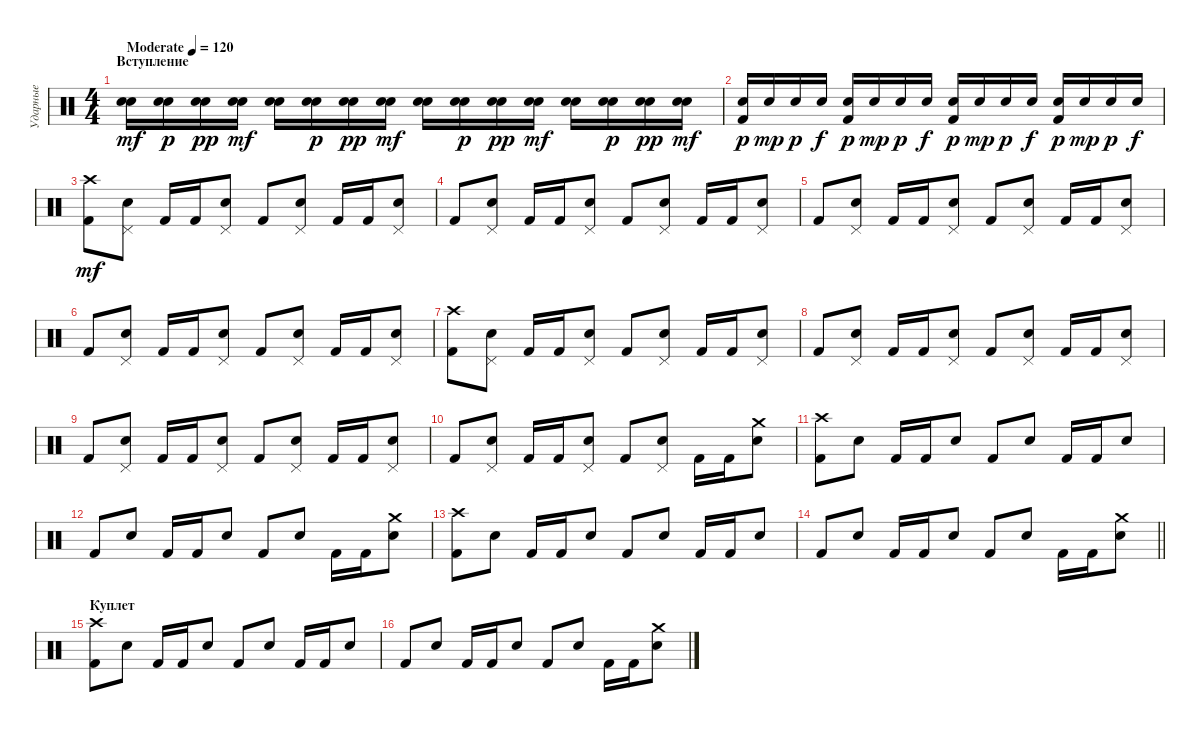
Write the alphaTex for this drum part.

\track ("Ударные" "Ударные") {instrument percussion}
\staff {score}
\articulation defaults
\ts (4 4)
\section ("" "Вступление")
\tempo (120 "Moderate")
\clef neutral
\ks c
("Electric Snare (hit)" "Electric Snare (hit)").16{dy mf} ("Electric Snare (hit)" "Electric Snare (hit)").16{dy p} ("Electric Snare (hit)" "Electric Snare (hit)").16{dy pp} ("Electric Snare (hit)" "Electric Snare (hit)").16{dy mf} ("Electric Snare (hit)" "Electric Snare (hit)").16 ("Electric Snare (hit)" "Electric Snare (hit)").16{dy p} ("Electric Snare (hit)" "Electric Snare (hit)").16{dy pp} ("Electric Snare (hit)" "Electric Snare (hit)").16{dy mf} ("Electric Snare (hit)" "Electric Snare (hit)").16 ("Electric Snare (hit)" "Electric Snare (hit)").16{dy p} ("Electric Snare (hit)" "Electric Snare (hit)").16{dy pp} ("Electric Snare (hit)" "Electric Snare (hit)").16{dy mf} ("Electric Snare (hit)" "Electric Snare (hit)").16 ("Electric Snare (hit)" "Electric Snare (hit)").16{dy p} ("Electric Snare (hit)" "Electric Snare (hit)").16{dy pp} ("Electric Snare (hit)" "Electric Snare (hit)").16{dy mf} |
("Electric Snare (hit)" "Kick (hit) 2").16{dy p} "Electric Snare (hit)".16{dy mp} "Electric Snare (hit)".16{dy p} "Electric Snare (hit)".16{dy f} ("Electric Snare (hit)" "Kick (hit) 2").16{dy p} "Electric Snare (hit)".16{dy mp} "Electric Snare (hit)".16{dy p} "Electric Snare (hit)".16{dy f} ("Electric Snare (hit)" "Kick (hit) 2").16{dy p} "Electric Snare (hit)".16{dy mp} "Electric Snare (hit)".16{dy p} "Electric Snare (hit)".16{dy f} ("Electric Snare (hit)" "Kick (hit) 2").16{dy p} "Electric Snare (hit)".16{dy mp} "Electric Snare (hit)".16{dy p} "Electric Snare (hit)".16{dy f} |
("Crash high (hit)" "Kick (hit) 2").8{dy mf} ("Pedal Hi-Hat (hit)" "Electric Snare (hit)").8 "Kick (hit) 2".16 "Kick (hit) 2".16 ("Pedal Hi-Hat (hit)" "Electric Snare (hit)").8 "Kick (hit) 2".8 ("Pedal Hi-Hat (hit)" "Electric Snare (hit)").8 "Kick (hit) 2".16 "Kick (hit) 2".16 ("Pedal Hi-Hat (hit)" "Electric Snare (hit)").8 |
"Kick (hit) 2".8 ("Pedal Hi-Hat (hit)" "Electric Snare (hit)").8 "Kick (hit) 2".16 "Kick (hit) 2".16 ("Pedal Hi-Hat (hit)" "Electric Snare (hit)").8 "Kick (hit) 2".8 ("Pedal Hi-Hat (hit)" "Electric Snare (hit)").8 "Kick (hit) 2".16 "Kick (hit) 2".16 ("Pedal Hi-Hat (hit)" "Electric Snare (hit)").8 |
"Kick (hit) 2".8 ("Pedal Hi-Hat (hit)" "Electric Snare (hit)").8 "Kick (hit) 2".16 "Kick (hit) 2".16 ("Pedal Hi-Hat (hit)" "Electric Snare (hit)").8 "Kick (hit) 2".8 ("Pedal Hi-Hat (hit)" "Electric Snare (hit)").8 "Kick (hit) 2".16 "Kick (hit) 2".16 ("Pedal Hi-Hat (hit)" "Electric Snare (hit)").8 |
"Kick (hit) 2".8 ("Pedal Hi-Hat (hit)" "Electric Snare (hit)").8 "Kick (hit) 2".16 "Kick (hit) 2".16 ("Pedal Hi-Hat (hit)" "Electric Snare (hit)").8 "Kick (hit) 2".8 ("Pedal Hi-Hat (hit)" "Electric Snare (hit)").8 "Kick (hit) 2".16 "Kick (hit) 2".16 ("Pedal Hi-Hat (hit)" "Electric Snare (hit)").8 |
("Crash high (hit)" "Kick (hit) 2").8 ("Pedal Hi-Hat (hit)" "Electric Snare (hit)").8 "Kick (hit) 2".16 "Kick (hit) 2".16 ("Pedal Hi-Hat (hit)" "Electric Snare (hit)").8 "Kick (hit) 2".8 ("Pedal Hi-Hat (hit)" "Electric Snare (hit)").8 "Kick (hit) 2".16 "Kick (hit) 2".16 ("Pedal Hi-Hat (hit)" "Electric Snare (hit)").8 |
"Kick (hit) 2".8 ("Pedal Hi-Hat (hit)" "Electric Snare (hit)").8 "Kick (hit) 2".16 "Kick (hit) 2".16 ("Pedal Hi-Hat (hit)" "Electric Snare (hit)").8 "Kick (hit) 2".8 ("Pedal Hi-Hat (hit)" "Electric Snare (hit)").8 "Kick (hit) 2".16 "Kick (hit) 2".16 ("Pedal Hi-Hat (hit)" "Electric Snare (hit)").8 |
"Kick (hit) 2".8 ("Pedal Hi-Hat (hit)" "Electric Snare (hit)").8 "Kick (hit) 2".16 "Kick (hit) 2".16 ("Pedal Hi-Hat (hit)" "Electric Snare (hit)").8 "Kick (hit) 2".8 ("Pedal Hi-Hat (hit)" "Electric Snare (hit)").8 "Kick (hit) 2".16 "Kick (hit) 2".16 ("Pedal Hi-Hat (hit)" "Electric Snare (hit)").8 |
"Kick (hit) 2".8 ("Pedal Hi-Hat (hit)" "Electric Snare (hit)").8 "Kick (hit) 2".16 "Kick (hit) 2".16 ("Pedal Hi-Hat (hit)" "Electric Snare (hit)").8 "Kick (hit) 2".8 ("Pedal Hi-Hat (hit)" "Electric Snare (hit)").8 "Kick (hit) 2".16 "Kick (hit) 2".16 ("Crash medium (hit)" "Electric Snare (hit)").8 |
("Crash high (hit)" "Kick (hit) 2").8 "Electric Snare (hit)".8 "Kick (hit) 2".16 "Kick (hit) 2".16 "Electric Snare (hit)".8 "Kick (hit) 2".8 "Electric Snare (hit)".8 "Kick (hit) 2".16 "Kick (hit) 2".16 "Electric Snare (hit)".8 |
"Kick (hit) 2".8 "Electric Snare (hit)".8 "Kick (hit) 2".16 "Kick (hit) 2".16 "Electric Snare (hit)".8 "Kick (hit) 2".8 "Electric Snare (hit)".8 "Kick (hit) 2".16 "Kick (hit) 2".16 ("Crash medium (hit)" "Electric Snare (hit)").8 |
("Crash high (hit)" "Kick (hit) 2").8 "Electric Snare (hit)".8 "Kick (hit) 2".16 "Kick (hit) 2".16 "Electric Snare (hit)".8 "Kick (hit) 2".8 "Electric Snare (hit)".8 "Kick (hit) 2".16 "Kick (hit) 2".16 "Electric Snare (hit)".8 |
\barLineRight lightlight "Kick (hit) 2".8 "Electric Snare (hit)".8 "Kick (hit) 2".16 "Kick (hit) 2".16 "Electric Snare (hit)".8 "Kick (hit) 2".8 "Electric Snare (hit)".8 "Kick (hit) 2".16 "Kick (hit) 2".16
("Crash medium (hit)" "Electric Snare (hit)").8 |
\section ("" "Куплет")
("Crash high (hit)" "Kick (hit) 2").8 "Electric Snare (hit)".8 "Kick (hit) 2".16 "Kick (hit) 2".16 "Electric Snare (hit)".8 "Kick (hit) 2".8 "Electric Snare (hit)".8 "Kick (hit) 2".16 "Kick (hit) 2".16 "Electric Snare (hit)".8 |
"Kick (hit) 2".8 "Electric Snare (hit)".8 "Kick (hit) 2".16 "Kick (hit) 2".16 "Electric Snare (hit)".8 "Kick (hit) 2".8 "Electric Snare (hit)".8 "Kick (hit) 2".16 "Kick (hit) 2".16 ("Crash medium (hit)" "Electric Snare (hit)").8
